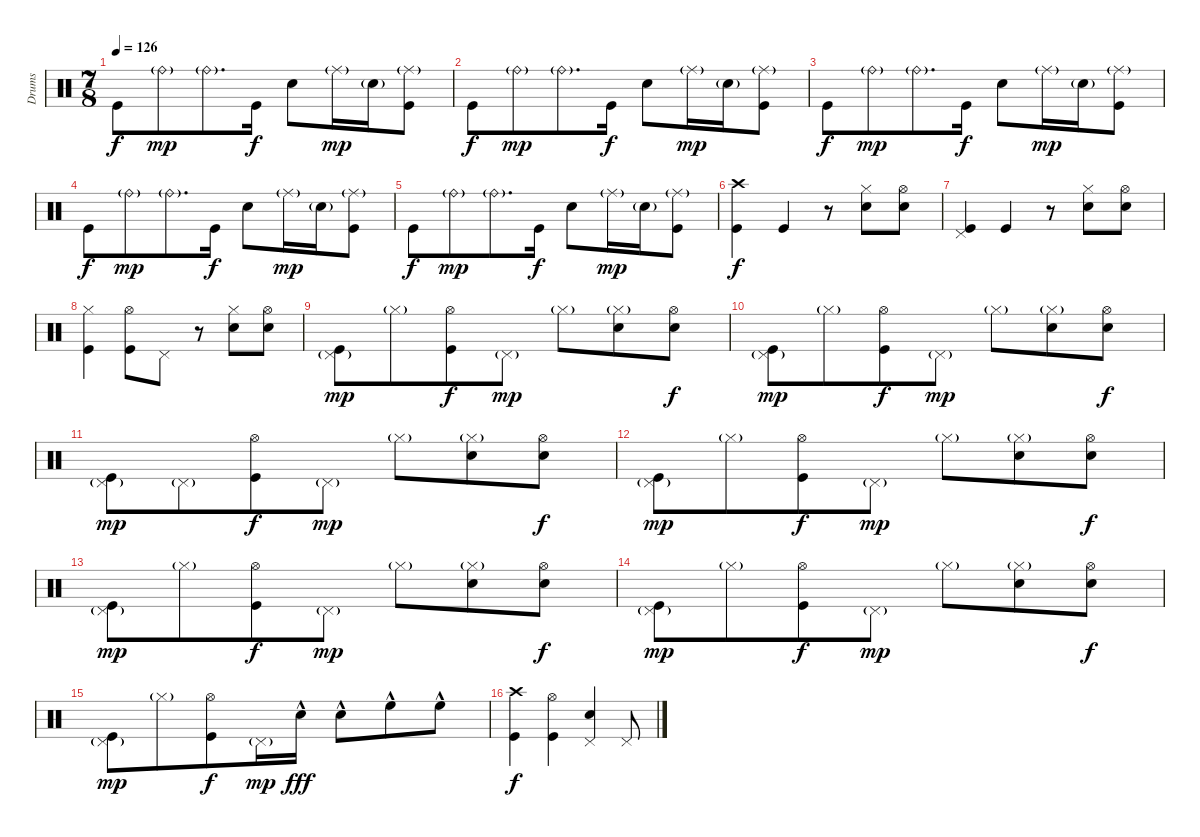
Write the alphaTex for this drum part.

\track ("Drums" "Drums") {instrument percussion}
\staff {score}
\articulation defaults
\ts (7 8)
\tempo 126
\clef neutral
\ks c "Kick (hit)".8{dy f} "Ride (bell)"{g}.8{dy mp} "Ride (bell)"{g}.8{d} "Kick (hit)".16{dy f} "Snare (hit) 2".8 "Ride (middle)"{g}.16{dy mp} "Snare (hit) 2"{g}.16
("Ride (middle)"{g} "Kick (hit)").8 |
"Kick (hit)".8{dy f} "Ride (bell)"{g}.8{dy mp} "Ride (bell)"{g}.8{d} "Kick (hit)".16{dy f} "Snare (hit) 2".8 "Ride (middle)"{g}.16{dy mp} "Snare (hit) 2"{g}.16 ("Ride (middle)"{g} "Kick (hit)").8 |
"Kick (hit)".8{dy f} "Ride (bell)"{g}.8{dy mp} "Ride (bell)"{g}.8{d} "Kick (hit)".16{dy f} "Snare (hit) 2".8 "Ride (middle)"{g}.16{dy mp} "Snare (hit) 2"{g}.16 ("Ride (middle)"{g} "Kick (hit)").8 |
"Kick (hit)".8{dy f} "Ride (bell)"{g}.8{dy mp} "Ride (bell)"{g}.8{d} "Kick (hit)".16{dy f} "Snare (hit) 2".8 "Ride (middle)"{g}.16{dy mp} "Snare (hit) 2"{g}.16 ("Ride (middle)"{g} "Kick (hit)").8 |
"Kick (hit)".8{dy f} "Ride (bell)"{g}.8{dy mp} "Ride (bell)"{g}.8{d} "Kick (hit)".16{dy f} "Snare (hit) 2".8 "Ride (middle)"{g}.16{dy mp} "Snare (hit) 2"{g}.16 ("Ride (middle)"{g} "Kick (hit)").8 |
("Crash high (hit)" "Kick (hit)").4{dy f} "Kick (hit)".4 r.8 ("Hi-Hat (closed)" "Snare (hit) 2").8 ("Hi-Hat (open)" "Snare (hit) 2").8 |
("Pedal Hi-Hat (hit)" "Kick (hit)").4 "Kick (hit)".4 r.8 ("Hi-Hat (closed)" "Snare (hit) 2").8 ("Hi-Hat (open)" "Snare (hit) 2").8 |
("Hi-Hat (closed)" "Kick (hit)").4 ("Hi-Hat (open)" "Kick (hit)").8 "Pedal Hi-Hat (hit)".8 r.8 ("Hi-Hat (closed)" "Snare (hit) 2").8 ("Hi-Hat (open)" "Snare (hit) 2").8 |
("Pedal Hi-Hat (hit)"{g} "Kick (hit)").8{dy mp} "Hi-Hat (closed)"{g}.8 ("Hi-Hat (open)" "Kick (hit)").8{dy f} "Pedal Hi-Hat (hit)"{g}.8{dy mp} "Hi-Hat (closed)"{g}.8 ("Hi-Hat (closed)"{g} "Snare (hit) 2").8 ("Hi-Hat (open)" "Snare (hit) 2").8{dy f} |
("Pedal Hi-Hat (hit)"{g} "Kick (hit)").8{dy mp} "Hi-Hat (closed)"{g}.8 ("Hi-Hat (open)" "Kick (hit)").8{dy f} "Pedal Hi-Hat (hit)"{g}.8{dy mp} "Hi-Hat (closed)"{g}.8 ("Hi-Hat (closed)"{g} "Snare (hit) 2").8 ("Hi-Hat (open)" "Snare (hit) 2").8{dy f} |
("Pedal Hi-Hat (hit)"{g} "Kick (hit)").8{dy mp} "Pedal Hi-Hat (hit)"{g}.8 ("Hi-Hat (open)" "Kick (hit)").8{dy f} "Pedal Hi-Hat (hit)"{g}.8{dy mp} "Hi-Hat (closed)"{g}.8 ("Hi-Hat (closed)"{g} "Snare (hit) 2").8 ("Hi-Hat (open)" "Snare (hit) 2").8{dy f} |
("Pedal Hi-Hat (hit)"{g} "Kick (hit)").8{dy mp} "Hi-Hat (closed)"{g}.8 ("Hi-Hat (open)" "Kick (hit)").8{dy f} "Pedal Hi-Hat (hit)"{g}.8{dy mp} "Hi-Hat (closed)"{g}.8 ("Hi-Hat (closed)"{g} "Snare (hit) 2").8 ("Hi-Hat (open)" "Snare (hit) 2").8{dy f} |
("Pedal Hi-Hat (hit)"{g} "Kick (hit)").8{dy mp} "Hi-Hat (closed)"{g}.8 ("Hi-Hat (open)" "Kick (hit)").8{dy f} "Pedal Hi-Hat (hit)"{g}.8{dy mp} "Hi-Hat (closed)"{g}.8 ("Hi-Hat (closed)"{g} "Snare (hit) 2").8 ("Hi-Hat (open)" "Snare (hit) 2").8{dy f} |
("Pedal Hi-Hat (hit)"{g} "Kick (hit)").8{dy mp} "Hi-Hat (closed)"{g}.8 ("Hi-Hat (open)" "Kick (hit)").8{dy f} "Pedal Hi-Hat (hit)"{g}.8{dy mp} "Hi-Hat (closed)"{g}.8 ("Hi-Hat (closed)"{g} "Snare (hit) 2").8 ("Hi-Hat (open)" "Snare (hit) 2").8{dy f} |
("Pedal Hi-Hat (hit)"{g} "Kick (hit)").8{dy mp} "Hi-Hat (closed)"{g}.8 ("Hi-Hat (open)" "Kick (hit)").8{dy f} "Pedal Hi-Hat (hit)"{g}.16{dy mp} "Snare (hit) 2"{hac}.16{dy fff} "Snare (hit) 2"{hac}.8 "High Floor Tom (hit)"{hac}.8 "High Floor Tom (hit)"{hac}.8 |
("Crash high (hit)" "Kick (hit)").4{dy f} ("Hi-Hat (open)" "Kick (hit)").4 ("Pedal Hi-Hat (hit)" "Snare (hit) 2").4 "Pedal Hi-Hat (hit)".8
